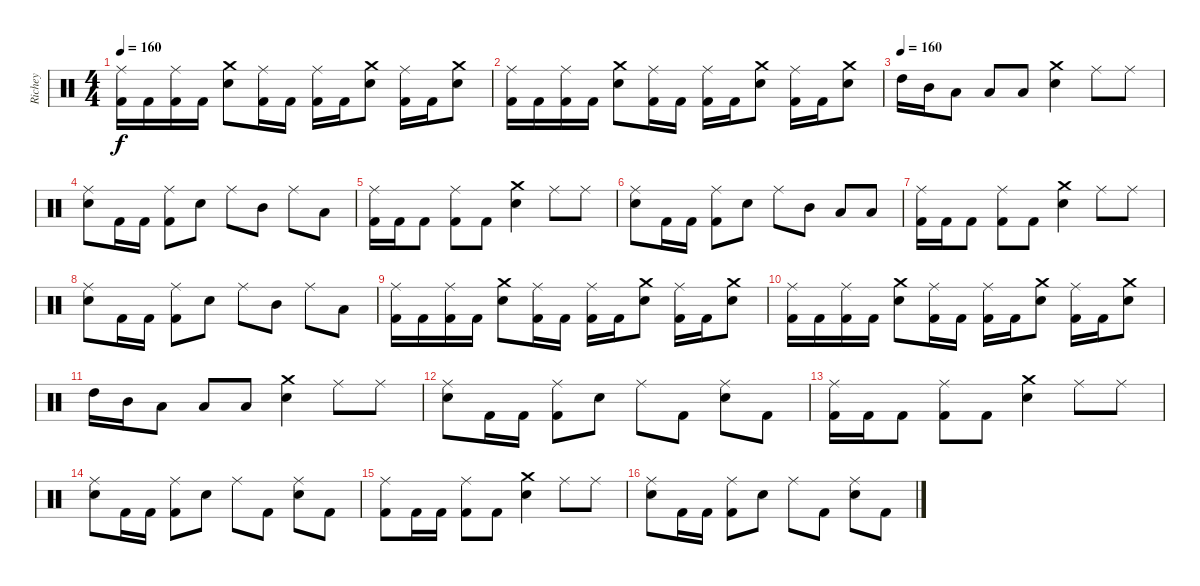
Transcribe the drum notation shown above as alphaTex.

\track ("Richey" "Richey") {instrument percussion}
\staff {score}
\articulation defaults
\ts (4 4)
\tempo 160
\clef neutral
\ks c
("Ride (middle)" "Kick (hit) 2").16{dy f} "Kick (hit) 2".16 ("Ride (middle)" "Kick (hit) 2").16 "Kick (hit) 2".16 ("Crash medium (hit)" "Snare (hit) 2").8 ("Ride (middle)" "Kick (hit) 2").16 "Kick (hit) 2".16 ("Ride (middle)" "Kick (hit) 2").16 "Kick (hit) 2".16 ("Crash medium (hit)" "Snare (hit) 2").8 ("Ride (middle)" "Kick (hit) 2").16 "Kick (hit) 2".16 ("Crash medium (hit)" "Snare (hit) 2").8 |
("Ride (middle)" "Kick (hit) 2").16 "Kick (hit) 2".16 ("Ride (middle)" "Kick (hit) 2").16 "Kick (hit) 2".16 ("Crash medium (hit)" "Snare (hit) 2").8 ("Ride (middle)" "Kick (hit) 2").16 "Kick (hit) 2".16 ("Ride (middle)" "Kick (hit) 2").16 "Kick (hit) 2".16 ("Crash medium (hit)" "Snare (hit) 2").8 ("Ride (middle)" "Kick (hit) 2").16 "Kick (hit) 2".16 ("Crash medium (hit)" "Snare (hit) 2").8 |
\tempo (160)
"High Tom (hit)".16 "Mid Tom (hit)".16 "Low Tom (hit)".8 "Low Tom (hit)".8 "Low Tom (hit)".8 ("Crash medium (hit)" "Snare (hit) 2").4 "Ride (middle)".8 "Ride (middle)".8 |
("Ride (middle)" "Snare (hit) 2").8 "Kick (hit) 2".16 "Kick (hit) 2".16 ("Ride (middle)" "Kick (hit) 2").8 "Snare (hit) 2".8 "Ride (middle)".8 "Mid Tom (hit)".8 "Ride (middle)".8 "Low Tom (hit)".8 |
("Ride (middle)" "Kick (hit) 2").16 "Kick (hit) 2".16 "Kick (hit) 2".8 ("Ride (middle)" "Kick (hit) 2").8 "Kick (hit) 2".8 ("Crash medium (hit)" "Snare (hit) 2").4 "Ride (middle)".8 "Ride (middle)".8 |
("Ride (middle)" "Snare (hit) 2").8 "Kick (hit) 2".16 "Kick (hit) 2".16 ("Ride (middle)" "Kick (hit) 2").8 "Snare (hit) 2".8 "Ride (middle)".8 "Mid Tom (hit)".8 "Low Tom (hit)".8 "Low Tom (hit)".8 |
("Ride (middle)" "Kick (hit) 2").16 "Kick (hit) 2".16 "Kick (hit) 2".8 ("Ride (middle)" "Kick (hit) 2").8 "Kick (hit) 2".8 ("Crash medium (hit)" "Snare (hit) 2").4 "Ride (middle)".8 "Ride (middle)".8 |
("Ride (middle)" "Snare (hit) 2").8 "Kick (hit) 2".16 "Kick (hit) 2".16 ("Ride (middle)" "Kick (hit) 2").8 "Snare (hit) 2".8 "Ride (middle)".8 "Mid Tom (hit)".8 "Ride (middle)".8 "Low Tom (hit)".8 |
("Ride (middle)" "Kick (hit) 2").16 "Kick (hit) 2".16 ("Ride (middle)" "Kick (hit) 2").16 "Kick (hit) 2".16 ("Crash medium (hit)" "Snare (hit) 2").8 ("Ride (middle)" "Kick (hit) 2").16 "Kick (hit) 2".16 ("Ride (middle)" "Kick (hit) 2").16 "Kick (hit) 2".16 ("Crash medium (hit)" "Snare (hit) 2").8 ("Ride (middle)" "Kick (hit) 2").16 "Kick (hit) 2".16 ("Crash medium (hit)" "Snare (hit) 2").8 |
("Ride (middle)" "Kick (hit) 2").16 "Kick (hit) 2".16 ("Ride (middle)" "Kick (hit) 2").16 "Kick (hit) 2".16 ("Crash medium (hit)" "Snare (hit) 2").8 ("Ride (middle)" "Kick (hit) 2").16 "Kick (hit) 2".16 ("Ride (middle)" "Kick (hit) 2").16 "Kick (hit) 2".16 ("Crash medium (hit)" "Snare (hit) 2").8 ("Ride (middle)" "Kick (hit) 2").16 "Kick (hit) 2".16 ("Crash medium (hit)" "Snare (hit) 2").8 |
"High Tom (hit)".16 "Mid Tom (hit)".16 "Low Tom (hit)".8 "Low Tom (hit)".8 "Low Tom (hit)".8 ("Crash medium (hit)" "Snare (hit) 2").4 "Ride (middle)".8 "Ride (middle)".8 |
("Ride (middle)" "Snare (hit) 2").8 "Kick (hit) 2".16 "Kick (hit) 2".16 ("Ride (middle)" "Kick (hit) 2").8 "Snare (hit) 2".8 "Ride (middle)".8 "Kick (hit) 2".8 ("Ride (middle)" "Snare (hit) 2").8 "Kick (hit) 2".8 |
("Ride (middle)" "Kick (hit) 2").16 "Kick (hit) 2".16 "Kick (hit) 2".8 ("Ride (middle)" "Kick (hit) 2").8 "Kick (hit) 2".8 ("Crash medium (hit)" "Snare (hit) 2").4 "Ride (middle)".8 "Ride (middle)".8 |
("Ride (middle)" "Snare (hit) 2").8 "Kick (hit) 2".16 "Kick (hit) 2".16 ("Ride (middle)" "Kick (hit) 2").8 "Snare (hit) 2".8 "Ride (middle)".8 "Kick (hit) 2".8 ("Ride (middle)" "Snare (hit) 2").8 "Kick (hit) 2".8 |
("Ride (middle)" "Kick (hit) 2").8 "Kick (hit) 2".16 "Kick (hit) 2".16 ("Ride (middle)" "Kick (hit) 2").8 "Kick (hit) 2".8 ("Crash medium (hit)" "Snare (hit) 2").4 "Ride (middle)".8 "Ride (middle)".8 |
("Ride (middle)" "Snare (hit) 2").8 "Kick (hit) 2".16 "Kick (hit) 2".16 ("Ride (middle)" "Kick (hit) 2").8 "Snare (hit) 2".8 "Ride (middle)".8 "Kick (hit) 2".8 ("Ride (middle)" "Snare (hit) 2").8 "Kick (hit) 2".8
